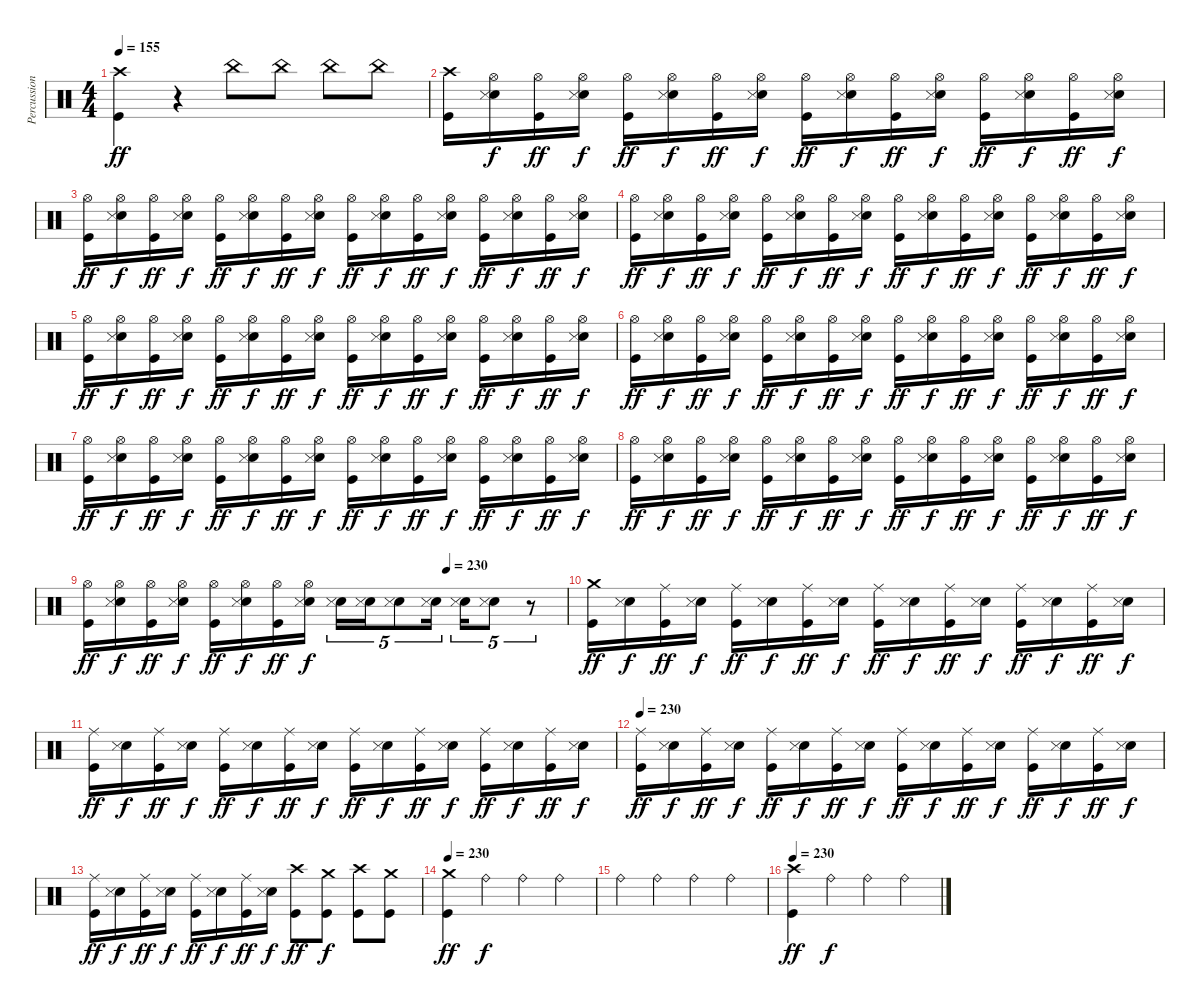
\track ("Percussions" "Percussion") {instrument percussion}
\staff {score}
\articulation defaults
\ts (4 4)
\tempo 155
\clef neutral
\ks c
("Crash high (hit)" "Kick (hit)").4{dy ff} r.4 "China (hit)".8 "China (hit)".8 "China (hit)".8 "China (hit)".8 |
("Crash high (hit)" "Kick (hit)").16 ("Hi-Hat (open)" "Electric Snare (hit)" "Snare (side stick) 3").16{dy f} ("Hi-Hat (open)" "Kick (hit)").16{dy ff} ("Hi-Hat (open)" "Electric Snare (hit)" "Snare (side stick) 3").16{dy f} ("Hi-Hat (open)" "Kick (hit)").16{dy ff} ("Hi-Hat (open)" "Electric Snare (hit)" "Snare (side stick) 3").16{dy f} ("Hi-Hat (open)" "Kick (hit)").16{dy ff} ("Hi-Hat (open)" "Electric Snare (hit)" "Snare (side stick) 3").16{dy f} ("Hi-Hat (open)" "Kick (hit)").16{dy ff} ("Hi-Hat (open)" "Electric Snare (hit)" "Snare (side stick) 3").16{dy f} ("Hi-Hat (open)" "Kick (hit)").16{dy ff} ("Hi-Hat (open)" "Electric Snare (hit)" "Snare (side stick) 3").16{dy f} ("Hi-Hat (open)" "Kick (hit)").16{dy ff} ("Hi-Hat (open)" "Electric Snare (hit)" "Snare (side stick) 3").16{dy f} ("Hi-Hat (open)" "Kick (hit)").16{dy ff} ("Hi-Hat (open)" "Electric Snare (hit)" "Snare (side stick) 3").16{dy f} |
("Hi-Hat (open)" "Kick (hit)").16{dy ff} ("Hi-Hat (open)" "Electric Snare (hit)" "Snare (side stick) 3").16{dy f} ("Hi-Hat (open)" "Kick (hit)").16{dy ff} ("Hi-Hat (open)" "Electric Snare (hit)" "Snare (side stick) 3").16{dy f} ("Hi-Hat (open)" "Kick (hit)").16{dy ff} ("Hi-Hat (open)" "Electric Snare (hit)" "Snare (side stick) 3").16{dy f} ("Hi-Hat (open)" "Kick (hit)").16{dy ff} ("Hi-Hat (open)" "Electric Snare (hit)" "Snare (side stick) 3").16{dy f} ("Hi-Hat (open)" "Kick (hit)").16{dy ff} ("Hi-Hat (open)" "Electric Snare (hit)" "Snare (side stick) 3").16{dy f} ("Hi-Hat (open)" "Kick (hit)").16{dy ff} ("Hi-Hat (open)" "Electric Snare (hit)" "Snare (side stick) 3").16{dy f} ("Hi-Hat (open)" "Kick (hit)").16{dy ff} ("Hi-Hat (open)" "Electric Snare (hit)" "Snare (side stick) 3").16{dy f} ("Hi-Hat (open)" "Kick (hit)").16{dy ff} ("Hi-Hat (open)" "Electric Snare (hit)" "Snare (side stick) 3").16{dy f} |
("Hi-Hat (open)" "Kick (hit)").16{dy ff} ("Hi-Hat (open)" "Electric Snare (hit)" "Snare (side stick) 3").16{dy f} ("Hi-Hat (open)" "Kick (hit)").16{dy ff} ("Hi-Hat (open)" "Electric Snare (hit)" "Snare (side stick) 3").16{dy f} ("Hi-Hat (open)" "Kick (hit)").16{dy ff} ("Hi-Hat (open)" "Electric Snare (hit)" "Snare (side stick) 3").16{dy f} ("Hi-Hat (open)" "Kick (hit)").16{dy ff} ("Hi-Hat (open)" "Electric Snare (hit)" "Snare (side stick) 3").16{dy f} ("Hi-Hat (open)" "Kick (hit)").16{dy ff} ("Hi-Hat (open)" "Electric Snare (hit)" "Snare (side stick) 3").16{dy f} ("Hi-Hat (open)" "Kick (hit)").16{dy ff} ("Hi-Hat (open)" "Electric Snare (hit)" "Snare (side stick) 3").16{dy f} ("Hi-Hat (open)" "Kick (hit)").16{dy ff} ("Hi-Hat (open)" "Electric Snare (hit)" "Snare (side stick) 3").16{dy f} ("Hi-Hat (open)" "Kick (hit)").16{dy ff} ("Hi-Hat (open)" "Electric Snare (hit)" "Snare (side stick) 3").16{dy f} |
("Hi-Hat (open)" "Kick (hit)").16{dy ff} ("Hi-Hat (open)" "Electric Snare (hit)" "Snare (side stick) 3").16{dy f} ("Hi-Hat (open)" "Kick (hit)").16{dy ff} ("Hi-Hat (open)" "Electric Snare (hit)" "Snare (side stick) 3").16{dy f} ("Hi-Hat (open)" "Kick (hit)").16{dy ff} ("Hi-Hat (open)" "Electric Snare (hit)" "Snare (side stick) 3").16{dy f} ("Hi-Hat (open)" "Kick (hit)").16{dy ff} ("Hi-Hat (open)" "Electric Snare (hit)" "Snare (side stick) 3").16{dy f} ("Hi-Hat (open)" "Kick (hit)").16{dy ff} ("Hi-Hat (open)" "Electric Snare (hit)" "Snare (side stick) 3").16{dy f} ("Hi-Hat (open)" "Kick (hit)").16{dy ff} ("Hi-Hat (open)" "Electric Snare (hit)" "Snare (side stick) 3").16{dy f} ("Hi-Hat (open)" "Kick (hit)").16{dy ff} ("Hi-Hat (open)" "Electric Snare (hit)" "Snare (side stick) 3").16{dy f} ("Hi-Hat (open)" "Kick (hit)").16{dy ff} ("Hi-Hat (open)" "Electric Snare (hit)" "Snare (side stick) 3").16{dy f} |
("Hi-Hat (open)" "Kick (hit)").16{dy ff} ("Hi-Hat (open)" "Electric Snare (hit)" "Snare (side stick) 3").16{dy f} ("Hi-Hat (open)" "Kick (hit)").16{dy ff} ("Hi-Hat (open)" "Electric Snare (hit)" "Snare (side stick) 3").16{dy f} ("Hi-Hat (open)" "Kick (hit)").16{dy ff} ("Hi-Hat (open)" "Electric Snare (hit)" "Snare (side stick) 3").16{dy f} ("Hi-Hat (open)" "Kick (hit)").16{dy ff} ("Hi-Hat (open)" "Electric Snare (hit)" "Snare (side stick) 3").16{dy f} ("Hi-Hat (open)" "Kick (hit)").16{dy ff} ("Hi-Hat (open)" "Electric Snare (hit)" "Snare (side stick) 3").16{dy f} ("Hi-Hat (open)" "Kick (hit)").16{dy ff} ("Hi-Hat (open)" "Electric Snare (hit)" "Snare (side stick) 3").16{dy f} ("Hi-Hat (open)" "Kick (hit)").16{dy ff} ("Hi-Hat (open)" "Electric Snare (hit)" "Snare (side stick) 3").16{dy f} ("Hi-Hat (open)" "Kick (hit)").16{dy ff} ("Hi-Hat (open)" "Electric Snare (hit)" "Snare (side stick) 3").16{dy f} |
("Hi-Hat (open)" "Kick (hit)").16{dy ff} ("Hi-Hat (open)" "Electric Snare (hit)" "Snare (side stick) 3").16{dy f} ("Hi-Hat (open)" "Kick (hit)").16{dy ff} ("Hi-Hat (open)" "Electric Snare (hit)" "Snare (side stick) 3").16{dy f} ("Hi-Hat (open)" "Kick (hit)").16{dy ff} ("Hi-Hat (open)" "Electric Snare (hit)" "Snare (side stick) 3").16{dy f} ("Hi-Hat (open)" "Kick (hit)").16{dy ff} ("Hi-Hat (open)" "Electric Snare (hit)" "Snare (side stick) 3").16{dy f} ("Hi-Hat (open)" "Kick (hit)").16{dy ff} ("Hi-Hat (open)" "Electric Snare (hit)" "Snare (side stick) 3").16{dy f} ("Hi-Hat (open)" "Kick (hit)").16{dy ff} ("Hi-Hat (open)" "Electric Snare (hit)" "Snare (side stick) 3").16{dy f} ("Hi-Hat (open)" "Kick (hit)").16{dy ff} ("Hi-Hat (open)" "Electric Snare (hit)" "Snare (side stick) 3").16{dy f} ("Hi-Hat (open)" "Kick (hit)").16{dy ff} ("Hi-Hat (open)" "Electric Snare (hit)" "Snare (side stick) 3").16{dy f} |
("Hi-Hat (open)" "Kick (hit)").16{dy ff} ("Hi-Hat (open)" "Electric Snare (hit)" "Snare (side stick) 3").16{dy f} ("Hi-Hat (open)" "Kick (hit)").16{dy ff} ("Hi-Hat (open)" "Electric Snare (hit)" "Snare (side stick) 3").16{dy f} ("Hi-Hat (open)" "Kick (hit)").16{dy ff} ("Hi-Hat (open)" "Electric Snare (hit)" "Snare (side stick) 3").16{dy f} ("Hi-Hat (open)" "Kick (hit)").16{dy ff} ("Hi-Hat (open)" "Electric Snare (hit)" "Snare (side stick) 3").16{dy f} ("Hi-Hat (open)" "Kick (hit)").16{dy ff} ("Hi-Hat (open)" "Electric Snare (hit)" "Snare (side stick) 3").16{dy f} ("Hi-Hat (open)" "Kick (hit)").16{dy ff} ("Hi-Hat (open)" "Electric Snare (hit)" "Snare (side stick) 3").16{dy f} ("Hi-Hat (open)" "Kick (hit)").16{dy ff} ("Hi-Hat (open)" "Electric Snare (hit)" "Snare (side stick) 3").16{dy f} ("Hi-Hat (open)" "Kick (hit)").16{dy ff} ("Hi-Hat (open)" "Electric Snare (hit)" "Snare (side stick) 3").16{dy f} |
\tempo (230 0.75)
("Hi-Hat (open)" "Kick (hit)").16{dy ff} ("Hi-Hat (open)" "Electric Snare (hit)" "Snare (side stick) 3").16{dy f} ("Hi-Hat (open)" "Kick (hit)").16{dy ff} ("Hi-Hat (open)" "Electric Snare (hit)" "Snare (side stick) 3").16{dy f} ("Hi-Hat (open)" "Kick (hit)").16{dy ff} ("Hi-Hat (open)" "Electric Snare (hit)" "Snare (side stick) 3").16{dy f} ("Hi-Hat (open)" "Kick (hit)").16{dy ff} ("Hi-Hat (open)" "Electric Snare (hit)" "Snare (side stick) 3").16{dy f} ("Electric Snare (hit)" "Snare (side stick) 3").16{tu (5 4)} ("Electric Snare (hit)" "Snare (side stick) 3").16{tu (5 4)} ("Electric Snare (hit)" "Snare (side stick) 3").8{tu (5 4)} ("Electric Snare (hit)" "Snare (side stick) 3").16{tu (5 4)} ("Electric Snare (hit)" "Snare (side stick) 3").16{tu (5 4)} ("Electric Snare (hit)" "Snare (side stick) 3").8{tu (5 4)} r.8{tu (5 4)} |
("Crash medium (hit)" "Kick (hit)").16{dy ff} ("Electric Snare (hit)" "Snare (side stick) 3").16{dy f} ("Ride (middle)" "Kick (hit)").16{dy ff} ("Electric Snare (hit)" "Snare (side stick) 3").16{dy f} ("Ride (middle)" "Kick (hit)").16{dy ff} ("Electric Snare (hit)" "Snare (side stick) 3").16{dy f} ("Ride (middle)" "Kick (hit)").16{dy ff} ("Electric Snare (hit)" "Snare (side stick) 3").16{dy f} ("Ride (middle)" "Kick (hit)").16{dy ff} ("Electric Snare (hit)" "Snare (side stick) 3").16{dy f} ("Ride (middle)" "Kick (hit)").16{dy ff} ("Electric Snare (hit)" "Snare (side stick) 3").16{dy f} ("Ride (middle)" "Kick (hit)").16{dy ff} ("Electric Snare (hit)" "Snare (side stick) 3").16{dy f} ("Ride (middle)" "Kick (hit)").16{dy ff} ("Electric Snare (hit)" "Snare (side stick) 3").16{dy f} |
("Ride (middle)" "Kick (hit)").16{dy ff} ("Electric Snare (hit)" "Snare (side stick) 3").16{dy f} ("Ride (middle)" "Kick (hit)").16{dy ff} ("Electric Snare (hit)" "Snare (side stick) 3").16{dy f} ("Ride (middle)" "Kick (hit)").16{dy ff} ("Electric Snare (hit)" "Snare (side stick) 3").16{dy f} ("Ride (middle)" "Kick (hit)").16{dy ff} ("Electric Snare (hit)" "Snare (side stick) 3").16{dy f} ("Ride (middle)" "Kick (hit)").16{dy ff} ("Electric Snare (hit)" "Snare (side stick) 3").16{dy f} ("Ride (middle)" "Kick (hit)").16{dy ff} ("Electric Snare (hit)" "Snare (side stick) 3").16{dy f} ("Ride (middle)" "Kick (hit)").16{dy ff} ("Electric Snare (hit)" "Snare (side stick) 3").16{dy f} ("Ride (middle)" "Kick (hit)").16{dy ff} ("Electric Snare (hit)" "Snare (side stick) 3").16{dy f} |
\tempo 230
("Ride (middle)" "Kick (hit)").16{dy ff} ("Electric Snare (hit)" "Snare (side stick) 3").16{dy f} ("Ride (middle)" "Kick (hit)").16{dy ff} ("Electric Snare (hit)" "Snare (side stick) 3").16{dy f} ("Ride (middle)" "Kick (hit)").16{dy ff} ("Electric Snare (hit)" "Snare (side stick) 3").16{dy f} ("Ride (middle)" "Kick (hit)").16{dy ff} ("Electric Snare (hit)" "Snare (side stick) 3").16{dy f} ("Ride (middle)" "Kick (hit)").16{dy ff} ("Electric Snare (hit)" "Snare (side stick) 3").16{dy f} ("Ride (middle)" "Kick (hit)").16{dy ff} ("Electric Snare (hit)" "Snare (side stick) 3").16{dy f} ("Ride (middle)" "Kick (hit)").16{dy ff} ("Electric Snare (hit)" "Snare (side stick) 3").16{dy f} ("Ride (middle)" "Kick (hit)").16{dy ff} ("Electric Snare (hit)" "Snare (side stick) 3").16{dy f} |
("Ride (middle)" "Kick (hit)").16{dy ff} ("Electric Snare (hit)" "Snare (side stick) 3").16{dy f} ("Ride (middle)" "Kick (hit)").16{dy ff} ("Electric Snare (hit)" "Snare (side stick) 3").16{dy f} ("Ride (middle)" "Kick (hit)").16{dy ff} ("Electric Snare (hit)" "Snare (side stick) 3").16{dy f} ("Ride (middle)" "Kick (hit)").16{dy ff} ("Electric Snare (hit)" "Snare (side stick) 3").16{dy f} ("Crash high (hit)" "Kick (hit)").8{dy ff} ("Crash medium (hit)" "Kick (hit)").8{dy f} ("Crash high (hit)" "Kick (hit)").8 ("Crash medium (hit)" "Kick (hit)").8 |
\tempo 230
("Crash medium (hit)" "Kick (hit)").4{dy ff} "Ride (bell)".4{dy f} "Ride (bell)".4 "Ride (bell)".4 |
"Ride (bell)".4 "Ride (bell)".4 "Ride (bell)".4 "Ride (bell)".4 |
\tempo 230
("Crash high (hit)" "Kick (hit)").4{dy ff} "Ride (bell)".4{dy f} "Ride (bell)".4 "Ride (bell)".4
